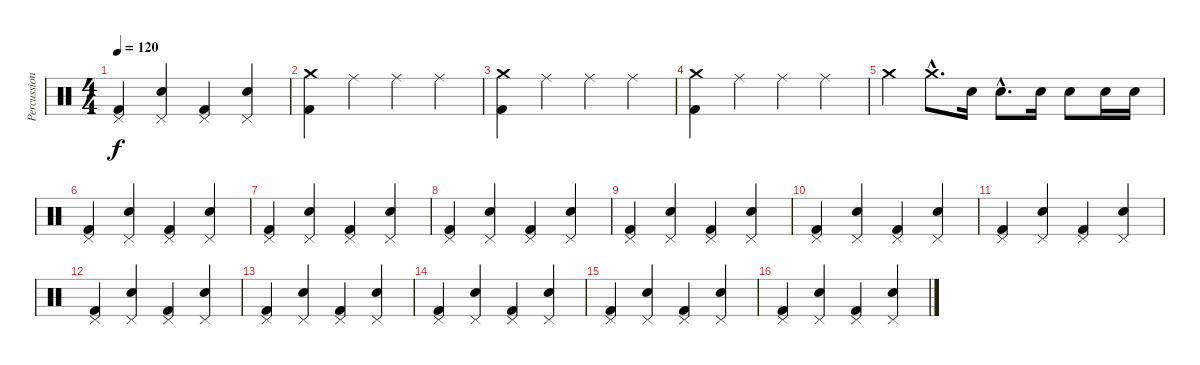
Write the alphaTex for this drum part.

\track ("Percussion" "Percussion") {instrument percussion}
\staff {score}
\articulation defaults
\ts (4 4)
\tempo 120
\clef neutral
\ks c
("Pedal Hi-Hat (hit)" "Kick (hit) 2").4{dy f} ("Pedal Hi-Hat (hit)" "Electric Snare (hit)").4 ("Pedal Hi-Hat (hit)" "Kick (hit) 2").4 ("Pedal Hi-Hat (hit)" "Electric Snare (hit)").4 |
("Kick (hit) 2" "Crash medium (hit)").4 "Ride (middle)".4 "Ride (middle)".4 "Ride (middle)".4 |
("Kick (hit) 2" "Crash medium (hit)").4 "Ride (middle)".4 "Ride (middle)".4 "Ride (middle)".4 |
("Kick (hit) 2" "Crash medium (hit)").4 "Ride (middle)".4 "Ride (middle)".4 "Ride (middle)".4 |
"Crash medium (hit)".4 "Crash medium (hit)"{hac}.8{d} "Electric Snare (hit)".16 "Electric Snare (hit)"{hac}.8{d} "Electric Snare (hit)".16 "Electric Snare (hit)".8 "Electric Snare (hit)".16 "Electric Snare (hit)".16 |
("Pedal Hi-Hat (hit)" "Kick (hit) 2").4 ("Pedal Hi-Hat (hit)" "Electric Snare (hit)").4 ("Pedal Hi-Hat (hit)" "Kick (hit) 2").4 ("Pedal Hi-Hat (hit)" "Electric Snare (hit)").4 |
("Pedal Hi-Hat (hit)" "Kick (hit) 2").4 ("Pedal Hi-Hat (hit)" "Electric Snare (hit)").4 ("Pedal Hi-Hat (hit)" "Kick (hit) 2").4 ("Pedal Hi-Hat (hit)" "Electric Snare (hit)").4 |
("Pedal Hi-Hat (hit)" "Kick (hit) 2").4 ("Pedal Hi-Hat (hit)" "Electric Snare (hit)").4 ("Pedal Hi-Hat (hit)" "Kick (hit) 2").4 ("Pedal Hi-Hat (hit)" "Electric Snare (hit)").4 |
("Pedal Hi-Hat (hit)" "Kick (hit) 2").4 ("Pedal Hi-Hat (hit)" "Electric Snare (hit)").4 ("Pedal Hi-Hat (hit)" "Kick (hit) 2").4 ("Pedal Hi-Hat (hit)" "Electric Snare (hit)").4 |
("Pedal Hi-Hat (hit)" "Kick (hit) 2").4 ("Pedal Hi-Hat (hit)" "Electric Snare (hit)").4 ("Pedal Hi-Hat (hit)" "Kick (hit) 2").4 ("Pedal Hi-Hat (hit)" "Electric Snare (hit)").4 |
("Pedal Hi-Hat (hit)" "Kick (hit) 2").4 ("Pedal Hi-Hat (hit)" "Electric Snare (hit)").4 ("Pedal Hi-Hat (hit)" "Kick (hit) 2").4 ("Pedal Hi-Hat (hit)" "Electric Snare (hit)").4 |
("Pedal Hi-Hat (hit)" "Kick (hit) 2").4 ("Pedal Hi-Hat (hit)" "Electric Snare (hit)").4 ("Pedal Hi-Hat (hit)" "Kick (hit) 2").4 ("Pedal Hi-Hat (hit)" "Electric Snare (hit)").4 |
("Pedal Hi-Hat (hit)" "Kick (hit) 2").4 ("Pedal Hi-Hat (hit)" "Electric Snare (hit)").4 ("Pedal Hi-Hat (hit)" "Kick (hit) 2").4 ("Pedal Hi-Hat (hit)" "Electric Snare (hit)").4 |
("Pedal Hi-Hat (hit)" "Kick (hit) 2").4 ("Pedal Hi-Hat (hit)" "Electric Snare (hit)").4 ("Pedal Hi-Hat (hit)" "Kick (hit) 2").4 ("Pedal Hi-Hat (hit)" "Electric Snare (hit)").4 |
("Pedal Hi-Hat (hit)" "Kick (hit) 2").4 ("Pedal Hi-Hat (hit)" "Electric Snare (hit)").4 ("Pedal Hi-Hat (hit)" "Kick (hit) 2").4 ("Pedal Hi-Hat (hit)" "Electric Snare (hit)").4 |
("Pedal Hi-Hat (hit)" "Kick (hit) 2").4 ("Pedal Hi-Hat (hit)" "Electric Snare (hit)").4 ("Pedal Hi-Hat (hit)" "Kick (hit) 2").4 ("Pedal Hi-Hat (hit)" "Electric Snare (hit)").4
